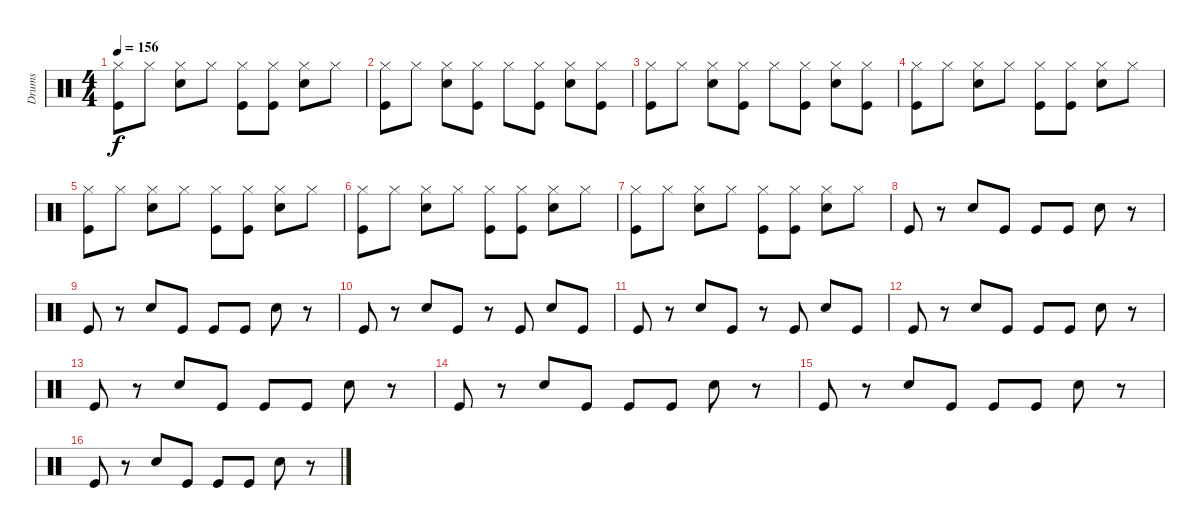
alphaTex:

\track ("Drums" "Drums") {instrument percussion}
\staff {score}
\articulation defaults
\ts (4 4)
\tempo 156
\clef neutral
\ks c
("Kick (hit)" "Hi-Hat (closed)").8{dy f} "Hi-Hat (closed)".8 ("Snare (hit) 2" "Hi-Hat (closed)").8 "Hi-Hat (closed)".8 ("Kick (hit)" "Hi-Hat (closed)").8 ("Kick (hit)" "Hi-Hat (closed)").8 ("Snare (hit) 2" "Hi-Hat (closed)").8 "Hi-Hat (closed)".8 |
("Kick (hit)" "Hi-Hat (closed)").8 "Hi-Hat (closed)".8 ("Snare (hit) 2" "Hi-Hat (closed)").8 ("Kick (hit)" "Hi-Hat (closed)").8 "Hi-Hat (closed)".8 ("Kick (hit)" "Hi-Hat (closed)").8 ("Snare (hit) 2" "Hi-Hat (closed)").8 ("Kick (hit)" "Hi-Hat (closed)").8 |
("Kick (hit)" "Hi-Hat (closed)").8 "Hi-Hat (closed)".8 ("Snare (hit) 2" "Hi-Hat (closed)").8 ("Kick (hit)" "Hi-Hat (closed)").8 "Hi-Hat (closed)".8 ("Kick (hit)" "Hi-Hat (closed)").8 ("Snare (hit) 2" "Hi-Hat (closed)").8 ("Kick (hit)" "Hi-Hat (closed)").8 |
("Kick (hit)" "Hi-Hat (closed)").8 "Hi-Hat (closed)".8 ("Snare (hit) 2" "Hi-Hat (closed)").8 "Hi-Hat (closed)".8 ("Kick (hit)" "Hi-Hat (closed)").8 ("Kick (hit)" "Hi-Hat (closed)").8 ("Snare (hit) 2" "Hi-Hat (closed)").8 "Hi-Hat (closed)".8 |
("Kick (hit)" "Hi-Hat (closed)").8 "Hi-Hat (closed)".8 ("Snare (hit) 2" "Hi-Hat (closed)").8 "Hi-Hat (closed)".8 ("Kick (hit)" "Hi-Hat (closed)").8 ("Kick (hit)" "Hi-Hat (closed)").8 ("Snare (hit) 2" "Hi-Hat (closed)").8 "Hi-Hat (closed)".8 |
("Kick (hit)" "Hi-Hat (closed)").8 "Hi-Hat (closed)".8 ("Snare (hit) 2" "Hi-Hat (closed)").8 "Hi-Hat (closed)".8 ("Kick (hit)" "Hi-Hat (closed)").8 ("Kick (hit)" "Hi-Hat (closed)").8 ("Snare (hit) 2" "Hi-Hat (closed)").8 "Hi-Hat (closed)".8 |
("Kick (hit)" "Hi-Hat (closed)").8 "Hi-Hat (closed)".8 ("Snare (hit) 2" "Hi-Hat (closed)").8 "Hi-Hat (closed)".8 ("Kick (hit)" "Hi-Hat (closed)").8 ("Kick (hit)" "Hi-Hat (closed)").8 ("Snare (hit) 2" "Hi-Hat (closed)").8 "Hi-Hat (closed)".8 |
"Kick (hit)".8 r.8 "Snare (hit) 2".8 "Kick (hit)".8 "Kick (hit)".8 "Kick (hit)".8 "Snare (hit) 2".8 r.8 |
"Kick (hit)".8 r.8 "Snare (hit) 2".8 "Kick (hit)".8 "Kick (hit)".8 "Kick (hit)".8 "Snare (hit) 2".8 r.8 |
"Kick (hit)".8 r.8 "Snare (hit) 2".8 "Kick (hit)".8 r.8 "Kick (hit)".8 "Snare (hit) 2".8 "Kick (hit)".8 |
"Kick (hit)".8 r.8 "Snare (hit) 2".8 "Kick (hit)".8 r.8 "Kick (hit)".8 "Snare (hit) 2".8 "Kick (hit)".8 |
"Kick (hit)".8 r.8 "Snare (hit) 2".8 "Kick (hit)".8 "Kick (hit)".8 "Kick (hit)".8 "Snare (hit) 2".8 r.8 |
"Kick (hit)".8 r.8 "Snare (hit) 2".8 "Kick (hit)".8 "Kick (hit)".8 "Kick (hit)".8 "Snare (hit) 2".8 r.8 |
"Kick (hit)".8 r.8 "Snare (hit) 2".8 "Kick (hit)".8 "Kick (hit)".8 "Kick (hit)".8 "Snare (hit) 2".8 r.8 |
"Kick (hit)".8 r.8 "Snare (hit) 2".8 "Kick (hit)".8 "Kick (hit)".8 "Kick (hit)".8 "Snare (hit) 2".8 r.8 |
"Kick (hit)".8 r.8 "Snare (hit) 2".8 "Kick (hit)".8 "Kick (hit)".8 "Kick (hit)".8 "Snare (hit) 2".8 r.8
